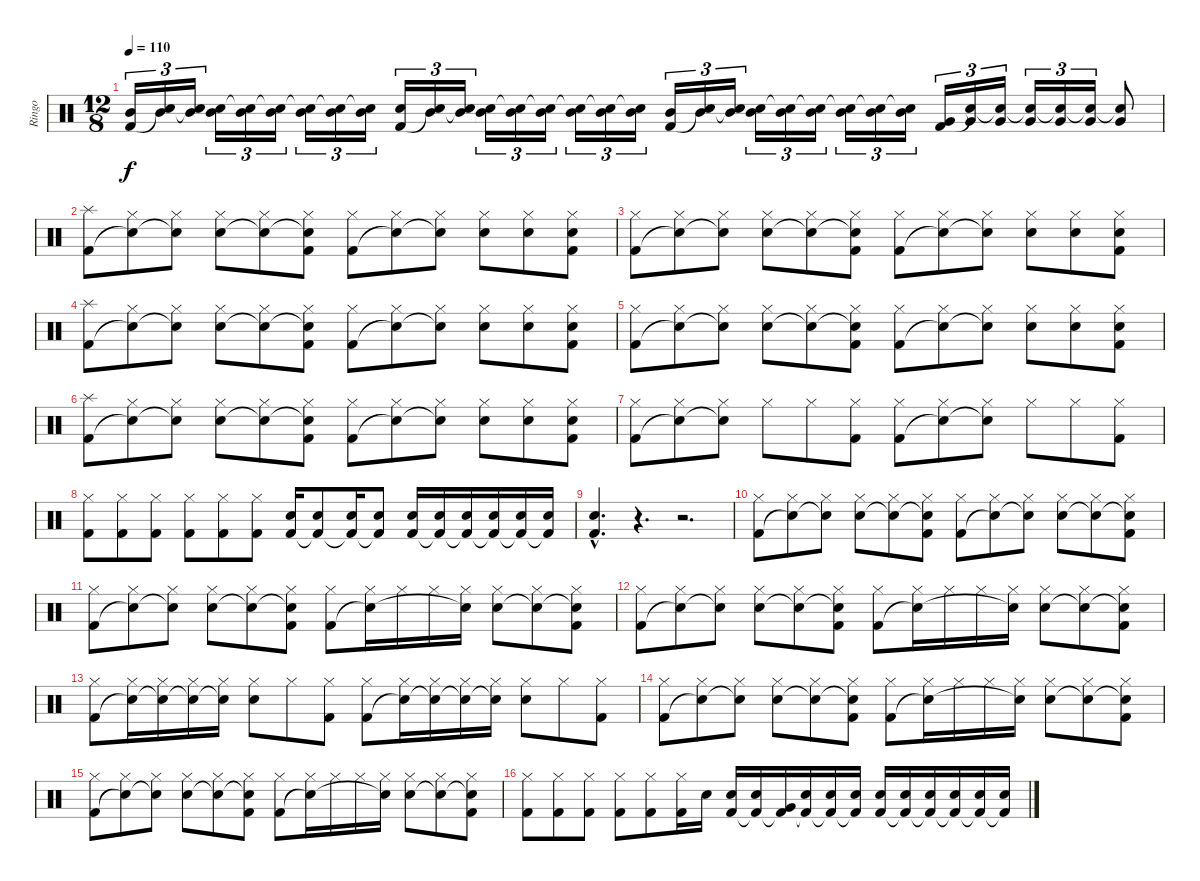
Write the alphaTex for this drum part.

\track ("Ringo" "Ringo") {instrument percussion}
\staff {score}
\articulation defaults
\ts (12 8)
\tempo 110
\clef neutral
\ks c
("Mid Tom (hit)" "Kick (hit) 2").16{tu (3 2) dy f} ("Mid Tom (hit)" "Snare (hit)"{t}).16{tu (3 2)} ("Mid Tom (hit)" "Snare (hit)"{t}).16{tu (3 2)} ("Mid Tom (hit)" "Snare (hit)"{t}).16{tu (3 2)} ("Mid Tom (hit)" "Snare (hit)"{t}).16{tu (3 2)} ("Mid Tom (hit)" "Snare (hit)"{t}).16{tu (3 2)} ("Mid Tom (hit)" "Snare (hit)"{t}).16{tu (3 2)} ("Mid Tom (hit)" "Snare (hit)"{t}).16{tu (3 2)} ("Mid Tom (hit)" "Snare (hit)"{t}).16{tu (3 2)} ("Snare (hit) 2" "Kick (hit) 2").16{tu (3 2)} ("Mid Tom (hit)" "Snare (hit)"{t}).16{tu (3 2)} ("Mid Tom (hit)" "Snare (hit)"{t}).16{tu (3 2)} ("Mid Tom (hit)" "Snare (hit)"{t}).16{tu (3 2)} ("Mid Tom (hit)" "Snare (hit)"{t}).16{tu (3 2)} ("Mid Tom (hit)" "Snare (hit)"{t}).16{tu (3 2)} ("Mid Tom (hit)" "Snare (hit)"{t}).16{tu (3 2)} ("Mid Tom (hit)" "Snare (hit)"{t}).16{tu (3 2)} ("Mid Tom (hit)" "Snare (hit)"{t}).16{tu (3 2)} ("Mid Tom (hit)" "Kick (hit) 2").16{tu (3 2)} ("Mid Tom (hit)" "Snare (hit)"{t}).16{tu (3 2)} ("Mid Tom (hit)" "Snare (hit)"{t}).16{tu (3 2)} ("Mid Tom (hit)" "Snare (hit)"{t}).16{tu (3 2)} ("Mid Tom (hit)" "Snare (hit)"{t}).16{tu (3 2)} ("Mid Tom (hit)" "Snare (hit)"{t}).16{tu (3 2)} ("Mid Tom (hit)" "Snare (hit)"{t}).16{tu (3 2)} ("Mid Tom (hit)" "Snare (hit)"{t}).16{tu (3 2)} ("Mid Tom (hit)" "Snare (hit)"{t}).16{tu (3 2)} ("Very Low Tom (hit)" "Kick (hit) 2").16{tu (3 2)} ("Very Low Tom (hit)" "Snare (hit)"{t}).16{tu (3 2)} ("Very Low Tom (hit)" "Snare (hit)"{t}).16{tu (3 2)} ("Very Low Tom (hit)" "Snare (hit)"{t}).16{tu (3 2)} ("Very Low Tom (hit)" "Snare (hit)"{t}).16{tu (3 2)} ("Very Low Tom (hit)" "Snare (hit)"{t}).16{tu (3 2)} ("Very Low Tom (hit)" "Snare (hit)"{t}).8 |
("Splash (hit)" "Kick (hit) 2").8 ("Hi-Hat (closed)" "Snare (hit)"{t}).8 ("Hi-Hat (closed)" "Snare (hit)"{t}).8 ("Hi-Hat (closed)" "Snare (hit) 2").8 ("Hi-Hat (closed)" "Snare (hit)"{t}).8 ("Hi-Hat (closed)" "Snare (hit)"{t} "Kick (hit) 2").8 ("Hi-Hat (closed)" "Kick (hit) 2").8 ("Hi-Hat (closed)" "Snare (hit)"{t}).8 ("Hi-Hat (closed)" "Snare (hit)"{t}).8 ("Hi-Hat (closed)" "Snare (hit) 2").8 ("Hi-Hat (closed)" "Snare (hit) 2").8 ("Hi-Hat (closed)" "Snare (hit) 2" "Kick (hit) 2").8 |
("Hi-Hat (closed)" "Kick (hit) 2").8 ("Hi-Hat (closed)" "Snare (hit)"{t}).8 ("Hi-Hat (closed)" "Snare (hit)"{t}).8 ("Hi-Hat (closed)" "Snare (hit) 2").8 ("Hi-Hat (closed)" "Snare (hit)"{t}).8 ("Hi-Hat (closed)" "Snare (hit)"{t} "Kick (hit) 2").8 ("Hi-Hat (closed)" "Kick (hit) 2").8 ("Hi-Hat (closed)" "Snare (hit)"{t}).8 ("Hi-Hat (closed)" "Snare (hit)"{t}).8 ("Hi-Hat (closed)" "Snare (hit) 2").8 ("Hi-Hat (closed)" "Snare (hit) 2").8 ("Hi-Hat (closed)" "Snare (hit) 2" "Kick (hit) 2").8 |
("Splash (hit)" "Kick (hit) 2").8 ("Hi-Hat (closed)" "Snare (hit)"{t}).8 ("Hi-Hat (closed)" "Snare (hit)"{t}).8 ("Hi-Hat (closed)" "Snare (hit) 2").8 ("Hi-Hat (closed)" "Snare (hit)"{t}).8 ("Hi-Hat (closed)" "Snare (hit)"{t} "Kick (hit) 2").8 ("Hi-Hat (closed)" "Kick (hit) 2").8 ("Hi-Hat (closed)" "Snare (hit)"{t}).8 ("Hi-Hat (closed)" "Snare (hit)"{t}).8 ("Hi-Hat (closed)" "Snare (hit) 2").8 ("Hi-Hat (closed)" "Snare (hit) 2").8 ("Hi-Hat (closed)" "Snare (hit) 2" "Kick (hit) 2").8 |
("Hi-Hat (closed)" "Kick (hit) 2").8 ("Hi-Hat (closed)" "Snare (hit)"{t}).8 ("Hi-Hat (closed)" "Snare (hit)"{t}).8 ("Hi-Hat (closed)" "Snare (hit) 2").8 ("Hi-Hat (closed)" "Snare (hit)"{t}).8 ("Hi-Hat (closed)" "Snare (hit)"{t} "Kick (hit) 2").8 ("Hi-Hat (closed)" "Kick (hit) 2").8 ("Hi-Hat (closed)" "Snare (hit)"{t}).8 ("Hi-Hat (closed)" "Snare (hit)"{t}).8 ("Hi-Hat (closed)" "Snare (hit) 2").8 ("Hi-Hat (closed)" "Snare (hit) 2").8 ("Hi-Hat (closed)" "Snare (hit) 2" "Kick (hit) 2").8 |
("Splash (hit)" "Kick (hit) 2").8 ("Hi-Hat (closed)" "Snare (hit)"{t}).8 ("Hi-Hat (closed)" "Snare (hit)"{t}).8 ("Hi-Hat (closed)" "Snare (hit) 2").8 ("Hi-Hat (closed)" "Snare (hit)"{t}).8 ("Hi-Hat (closed)" "Snare (hit)"{t} "Kick (hit) 2").8 ("Hi-Hat (closed)" "Kick (hit) 2").8 ("Hi-Hat (closed)" "Snare (hit)"{t}).8 ("Hi-Hat (closed)" "Snare (hit)"{t}).8 ("Hi-Hat (closed)" "Snare (hit) 2").8 ("Hi-Hat (closed)" "Snare (hit) 2").8 ("Hi-Hat (closed)" "Snare (hit) 2" "Kick (hit) 2").8 |
("Hi-Hat (closed)" "Kick (hit) 2").8 ("Hi-Hat (closed)" "Snare (hit)"{t}).8 ("Hi-Hat (closed)" "Snare (hit)"{t}).8 "Hi-Hat (closed)".8 "Hi-Hat (closed)".8 ("Hi-Hat (closed)" "Kick (hit) 2").8 ("Hi-Hat (closed)" "Kick (hit) 2").8 ("Hi-Hat (closed)" "Snare (hit)"{t}).8 ("Hi-Hat (closed)" "Snare (hit)"{t}).8 "Hi-Hat (closed)".8 "Hi-Hat (closed)".8 ("Hi-Hat (closed)" "Kick (hit) 2").8 |
("Hi-Hat (closed)" "Kick (hit) 2").8 ("Hi-Hat (closed)" "Kick (hit) 2").8 ("Hi-Hat (closed)" "Kick (hit) 2").8 ("Hi-Hat (closed)" "Kick (hit) 2").8 ("Hi-Hat (closed)" "Kick (hit) 2").8 ("Hi-Hat (closed)" "Kick (hit) 2").8 ("Snare (hit) 2" "Kick (hit) 2").16 ("Snare (hit) 2" "Kick (hit) 2"{t}).8 ("Snare (hit) 2" "Kick (hit) 2"{t}).16 ("Snare (hit) 2" "Kick (hit) 2"{t}).8 ("Snare (hit) 2" "Kick (hit) 2").16 ("Snare (hit) 2" "Kick (hit) 2"{t}).16 ("Snare (hit) 2" "Kick (hit) 2"{t}).16 ("Snare (hit) 2" "Kick (hit) 2"{t}).16 ("Snare (hit) 2" "Kick (hit) 2"{t}).16 ("Snare (hit) 2" "Kick (hit) 2"{t}).16 |
("Snare (hit) 2"{hac} "Kick (hit) 2"{hac}).4{d} r.4{d} r.2{d} |
("Hi-Hat (closed)" "Kick (hit) 2").8 ("Hi-Hat (closed)" "Snare (hit)"{t}).8 ("Hi-Hat (closed)" "Snare (hit)"{t}).8 ("Hi-Hat (closed)" "Snare (hit) 2").8 ("Hi-Hat (closed)" "Snare (hit)"{t}).8 ("Hi-Hat (closed)" "Snare (hit)"{t} "Kick (hit) 2").8 ("Hi-Hat (closed)" "Kick (hit) 2").8 ("Hi-Hat (closed)" "Snare (hit)"{t}).8 ("Hi-Hat (closed)" "Snare (hit)"{t}).8 ("Hi-Hat (closed)" "Snare (hit) 2").8 ("Hi-Hat (closed)" "Snare (hit)"{t}).8 ("Hi-Hat (closed)" "Snare (hit)"{t} "Kick (hit) 2").8 |
("Hi-Hat (closed)" "Kick (hit) 2").8 ("Hi-Hat (closed)" "Snare (hit)"{t}).8 ("Hi-Hat (closed)" "Snare (hit)"{t}).8 ("Hi-Hat (closed)" "Snare (hit) 2").8 ("Hi-Hat (closed)" "Snare (hit)"{t}).8 ("Hi-Hat (closed)" "Snare (hit)"{t} "Kick (hit) 2").8 ("Hi-Hat (closed)" "Kick (hit) 2").8 ("Hi-Hat (closed)" "Snare (hit)"{t}).16 "Hi-Hat (closed)".16 "Hi-Hat (closed)".16 ("Hi-Hat (closed)" "Snare (hit)"{t}).16 ("Hi-Hat (closed)" "Snare (hit) 2").8 ("Hi-Hat (closed)" "Snare (hit)"{t}).8 ("Hi-Hat (closed)" "Snare (hit)"{t} "Kick (hit) 2").8 |
("Hi-Hat (closed)" "Kick (hit) 2").8 ("Hi-Hat (closed)" "Snare (hit)"{t}).8 ("Hi-Hat (closed)" "Snare (hit)"{t}).8 ("Hi-Hat (closed)" "Snare (hit) 2").8 ("Hi-Hat (closed)" "Snare (hit)"{t}).8 ("Hi-Hat (closed)" "Snare (hit)"{t} "Kick (hit) 2").8 ("Hi-Hat (closed)" "Kick (hit) 2").8 ("Hi-Hat (closed)" "Snare (hit)"{t}).16 "Hi-Hat (closed)".16 "Hi-Hat (closed)".16 ("Hi-Hat (closed)" "Snare (hit)"{t}).16 ("Hi-Hat (closed)" "Snare (hit) 2").8 ("Hi-Hat (closed)" "Snare (hit)"{t}).8 ("Hi-Hat (closed)" "Snare (hit)"{t} "Kick (hit) 2").8 |
("Hi-Hat (closed)" "Kick (hit) 2").8 ("Hi-Hat (closed)" "Snare (hit)"{t}).16 ("Hi-Hat (closed)" "Snare (hit)"{t}).16 ("Hi-Hat (closed)" "Snare (hit)"{t}).16 ("Hi-Hat (closed)" "Snare (hit)"{t}).16 ("Hi-Hat (closed)" "Snare (hit) 2").8 "Hi-Hat (closed)".8 ("Hi-Hat (closed)" "Kick (hit) 2").8 ("Hi-Hat (closed)" "Kick (hit) 2").8 ("Hi-Hat (closed)" "Snare (hit)"{t}).16 ("Hi-Hat (closed)" "Snare (hit)"{t}).16 ("Hi-Hat (closed)" "Snare (hit)"{t}).16 ("Hi-Hat (closed)" "Snare (hit)"{t}).16 ("Hi-Hat (closed)" "Snare (hit) 2").8 "Hi-Hat (closed)".8 ("Hi-Hat (closed)" "Kick (hit) 2").8 |
("Hi-Hat (closed)" "Kick (hit) 2").8 ("Hi-Hat (closed)" "Snare (hit)"{t}).8 ("Hi-Hat (closed)" "Snare (hit)"{t}).8 ("Hi-Hat (closed)" "Snare (hit) 2").8 ("Hi-Hat (closed)" "Snare (hit)"{t}).8 ("Hi-Hat (closed)" "Snare (hit)"{t} "Kick (hit) 2").8 ("Hi-Hat (closed)" "Kick (hit) 2").8 ("Hi-Hat (closed)" "Snare (hit)"{t}).16 "Hi-Hat (closed)".16 "Hi-Hat (closed)".16 ("Hi-Hat (closed)" "Snare (hit)"{t}).16 ("Hi-Hat (closed)" "Snare (hit) 2").8 ("Hi-Hat (closed)" "Snare (hit)"{t}).8 ("Hi-Hat (closed)" "Snare (hit)"{t} "Kick (hit) 2").8 |
("Hi-Hat (closed)" "Kick (hit) 2").8 ("Hi-Hat (closed)" "Snare (hit)"{t}).8 ("Hi-Hat (closed)" "Snare (hit)"{t}).8 ("Hi-Hat (closed)" "Snare (hit) 2").8 ("Hi-Hat (closed)" "Snare (hit)"{t}).8 ("Hi-Hat (closed)" "Snare (hit)"{t} "Kick (hit) 2").8 ("Hi-Hat (closed)" "Kick (hit) 2").8 ("Hi-Hat (closed)" "Snare (hit)"{t}).16 "Hi-Hat (closed)".16 "Hi-Hat (closed)".16 ("Hi-Hat (closed)" "Snare (hit)"{t}).16 ("Hi-Hat (closed)" "Snare (hit) 2").8 ("Hi-Hat (closed)" "Snare (hit)"{t}).8 ("Hi-Hat (closed)" "Snare (hit)"{t} "Kick (hit) 2").8 |
("Hi-Hat (closed)" "Kick (hit) 2").8 ("Hi-Hat (closed)" "Kick (hit) 2").8 ("Hi-Hat (closed)" "Kick (hit) 2").8 ("Hi-Hat (closed)" "Kick (hit) 2").8 ("Hi-Hat (closed)" "Kick (hit) 2").8 ("Hi-Hat (closed)" "Kick (hit) 2").16 "Snare (hit) 2".16 ("Snare (hit) 2" "Kick (hit) 2").16 ("Snare (hit) 2" "Kick (hit) 2"{t}).16 ("Very Low Tom (hit)" "Kick (hit) 2"{t}).16 ("Snare (hit) 2" "Kick (hit) 2"{t}).16 ("Snare (hit) 2" "Kick (hit) 2"{t}).16 ("Snare (hit) 2" "Kick (hit) 2"{t}).16 ("Snare (hit) 2" "Kick (hit) 2").16 ("Snare (hit) 2" "Kick (hit) 2"{t}).16 ("Snare (hit) 2" "Kick (hit) 2"{t}).16 ("Snare (hit) 2" "Kick (hit) 2"{t}).16 ("Snare (hit) 2" "Kick (hit) 2"{t}).16 ("Snare (hit) 2" "Kick (hit) 2"{t}).16
